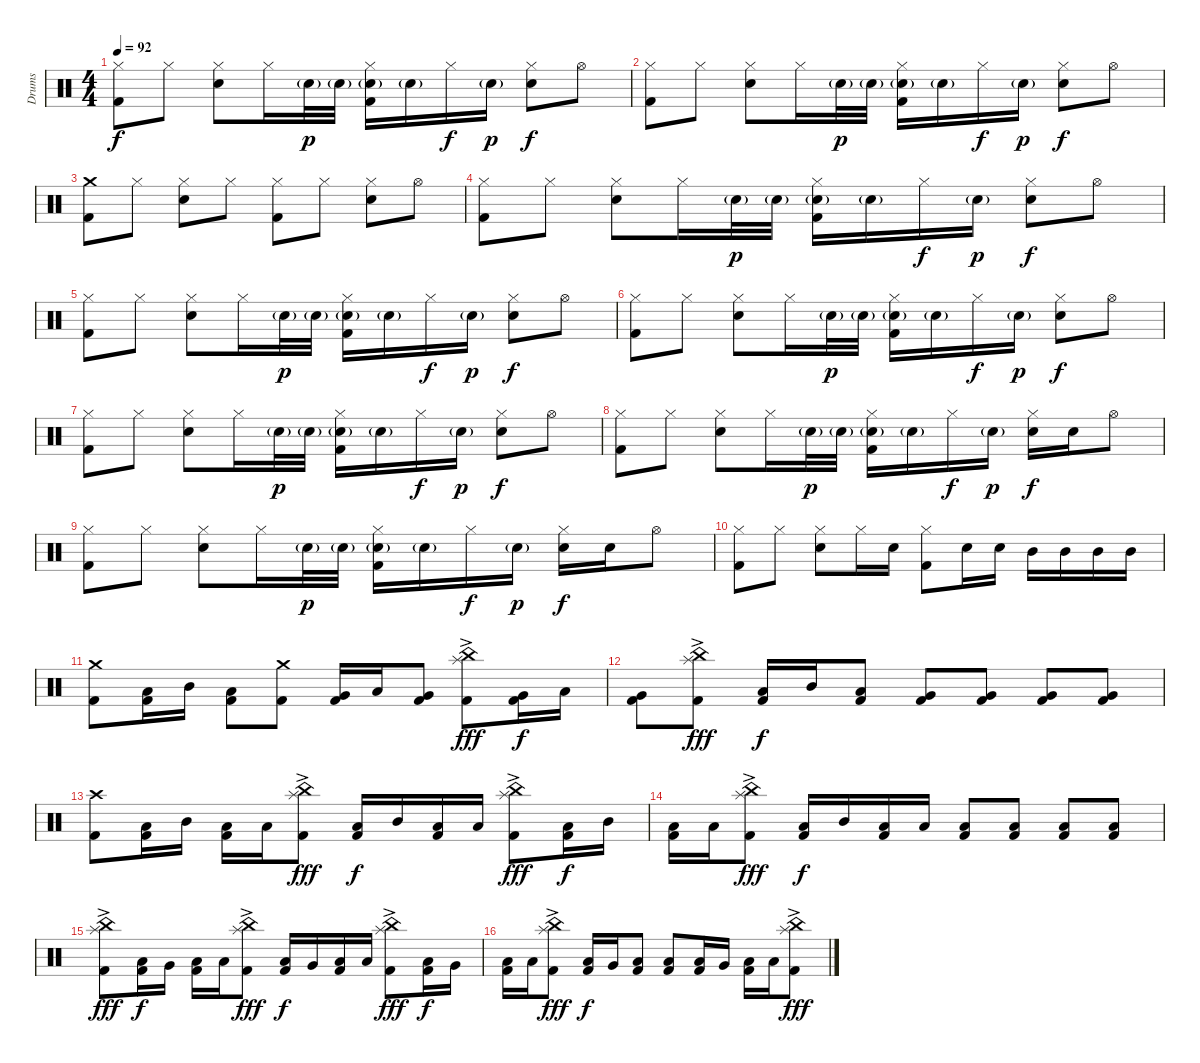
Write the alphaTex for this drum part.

\track ("Drums" "Drums") {instrument percussion}
\staff {score}
\articulation defaults
\ts (4 4)
\tempo 92
\clef neutral
\ks c
("Hi-Hat (closed)" "Kick (hit) 2").8{dy f} "Hi-Hat (closed)".8 ("Hi-Hat (closed)" "Snare (hit) 2").8 "Hi-Hat (closed)".16 "Snare (hit) 2"{g}.32{dy p} "Snare (hit) 2"{g}.32 ("Hi-Hat (closed)" "Snare (hit) 2"{g} "Kick (hit) 2").16 "Snare (hit) 2"{g}.16 "Hi-Hat (closed)".16{dy f} "Snare (hit) 2"{g}.16{dy p} ("Hi-Hat (closed)" "Snare (hit) 2").8{dy f} "Hi-Hat (open)".8 |
("Hi-Hat (closed)" "Kick (hit) 2").8 "Hi-Hat (closed)".8 ("Hi-Hat (closed)" "Snare (hit) 2").8 "Hi-Hat (closed)".16 "Snare (hit) 2"{g}.32{dy p} "Snare (hit) 2"{g}.32 ("Hi-Hat (closed)" "Snare (hit) 2"{g} "Kick (hit) 2").16 "Snare (hit) 2"{g}.16 "Hi-Hat (closed)".16{dy f} "Snare (hit) 2"{g}.16{dy p} ("Hi-Hat (closed)" "Snare (hit) 2").8{dy f} "Hi-Hat (open)".8 |
("Crash medium (hit)" "Kick (hit) 2").8 "Hi-Hat (closed)".8 ("Hi-Hat (closed)" "Snare (hit) 2").8 "Hi-Hat (closed)".8 ("Hi-Hat (closed)" "Kick (hit) 2").8 "Hi-Hat (closed)".8 ("Hi-Hat (closed)" "Snare (hit) 2").8 "Hi-Hat (open)".8 |
("Hi-Hat (closed)" "Kick (hit) 2").8 "Hi-Hat (closed)".8 ("Hi-Hat (closed)" "Snare (hit) 2").8 "Hi-Hat (closed)".16 "Snare (hit) 2"{g}.32{dy p} "Snare (hit) 2"{g}.32 ("Hi-Hat (closed)" "Snare (hit) 2"{g} "Kick (hit) 2").16 "Snare (hit) 2"{g}.16 "Hi-Hat (closed)".16{dy f} "Snare (hit) 2"{g}.16{dy p} ("Hi-Hat (closed)" "Snare (hit) 2").8{dy f} "Hi-Hat (open)".8 |
("Hi-Hat (closed)" "Kick (hit) 2").8 "Hi-Hat (closed)".8 ("Hi-Hat (closed)" "Snare (hit) 2").8 "Hi-Hat (closed)".16 "Snare (hit) 2"{g}.32{dy p} "Snare (hit) 2"{g}.32 ("Hi-Hat (closed)" "Snare (hit) 2"{g} "Kick (hit) 2").16 "Snare (hit) 2"{g}.16 "Hi-Hat (closed)".16{dy f} "Snare (hit) 2"{g}.16{dy p} ("Hi-Hat (closed)" "Snare (hit) 2").8{dy f} "Hi-Hat (open)".8 |
("Hi-Hat (closed)" "Kick (hit) 2").8 "Hi-Hat (closed)".8 ("Hi-Hat (closed)" "Snare (hit) 2").8 "Hi-Hat (closed)".16 "Snare (hit) 2"{g}.32{dy p} "Snare (hit) 2"{g}.32 ("Hi-Hat (closed)" "Snare (hit) 2"{g} "Kick (hit) 2").16 "Snare (hit) 2"{g}.16 "Hi-Hat (closed)".16{dy f} "Snare (hit) 2"{g}.16{dy p} ("Hi-Hat (closed)" "Snare (hit) 2").8{dy f} "Hi-Hat (open)".8 |
("Hi-Hat (closed)" "Kick (hit) 2").8 "Hi-Hat (closed)".8 ("Hi-Hat (closed)" "Snare (hit) 2").8 "Hi-Hat (closed)".16 "Snare (hit) 2"{g}.32{dy p} "Snare (hit) 2"{g}.32 ("Hi-Hat (closed)" "Snare (hit) 2"{g} "Kick (hit) 2").16 "Snare (hit) 2"{g}.16 "Hi-Hat (closed)".16{dy f} "Snare (hit) 2"{g}.16{dy p} ("Hi-Hat (closed)" "Snare (hit) 2").8{dy f} "Hi-Hat (open)".8 |
("Hi-Hat (closed)" "Kick (hit) 2").8 "Hi-Hat (closed)".8 ("Hi-Hat (closed)" "Snare (hit) 2").8 "Hi-Hat (closed)".16 "Snare (hit) 2"{g}.32{dy p} "Snare (hit) 2"{g}.32 ("Hi-Hat (closed)" "Snare (hit) 2"{g} "Kick (hit) 2").16 "Snare (hit) 2"{g}.16 "Hi-Hat (closed)".16{dy f} "Snare (hit) 2"{g}.16{dy p} ("Hi-Hat (closed)" "Snare (hit) 2").16{dy f} "Snare (hit) 2".16 "Hi-Hat (open)".8 |
("Hi-Hat (closed)" "Kick (hit) 2").8 "Hi-Hat (closed)".8 ("Hi-Hat (closed)" "Snare (hit) 2").8 "Hi-Hat (closed)".16 "Snare (hit) 2"{g}.32{dy p} "Snare (hit) 2"{g}.32 ("Hi-Hat (closed)" "Snare (hit) 2"{g} "Kick (hit) 2").16 "Snare (hit) 2"{g}.16 "Hi-Hat (closed)".16{dy f} "Snare (hit) 2"{g}.16{dy p} ("Hi-Hat (closed)" "Snare (hit) 2").16{dy f} "Snare (hit) 2".16 "Hi-Hat (open)".8 |
("Hi-Hat (closed)" "Kick (hit) 2").8 "Hi-Hat (closed)".8 ("Hi-Hat (closed)" "Snare (hit) 2").8 "Hi-Hat (closed)".16 "Snare (hit) 2".16 ("Hi-Hat (closed)" "Kick (hit) 2").8 "Snare (hit) 2".16 "Snare (hit) 2".16 "Mid Tom (hit)".16 "Mid Tom (hit)".16 "Mid Tom (hit)".16 "Mid Tom (hit)".16 |
("Crash medium (hit)" "Kick (hit) 2").8 ("Low Tom (hit)" "Kick (hit) 2").16 "Mid Tom (hit)".16 ("Low Tom (hit)" "Kick (hit) 2").8 ("Crash medium (hit)" "Kick (hit) 2").8 ("Very Low Tom (hit)" "Kick (hit) 2").16 "Low Tom (hit)".16 ("Very Low Tom (hit)" "Kick (hit) 2").8 ("China (hit)" "Splash (hit)"{ac} "Kick (hit) 2").8{dy fff} ("Very Low Tom (hit)" "Kick (hit) 2").16{dy f} "Low Tom (hit)".16 |
("Very Low Tom (hit)" "Kick (hit) 2").8 ("China (hit)" "Splash (hit)"{ac} "Kick (hit) 2").8{dy fff} ("Low Tom (hit)" "Kick (hit) 2").16{dy f} "Mid Tom (hit)".16 ("Low Tom (hit)" "Kick (hit) 2").8 ("Very Low Tom (hit)" "Kick (hit) 2").8 ("Very Low Tom (hit)" "Kick (hit) 2").8 ("Very Low Tom (hit)" "Kick (hit) 2").8 ("Very Low Tom (hit)" "Kick (hit) 2").8 |
("Crash high (hit)" "Kick (hit) 2").8 ("Low Tom (hit)" "Kick (hit) 2").16 "Mid Tom (hit)".16 ("Low Tom (hit)" "Kick (hit) 2").16 "Low Tom (hit)".16 ("China (hit)" "Splash (hit)"{ac} "Kick (hit) 2").8{dy fff} ("Low Tom (hit)" "Kick (hit) 2").16{dy f} "Mid Tom (hit)".16 ("Low Tom (hit)" "Kick (hit) 2").16 "Low Tom (hit)".16 ("China (hit)" "Splash (hit)"{ac} "Kick (hit) 2").8{dy fff} ("Low Tom (hit)" "Kick (hit) 2").16{dy f} "Mid Tom (hit)".16 |
("Low Tom (hit)" "Kick (hit) 2").16 "Low Tom (hit)".16 ("China (hit)" "Splash (hit)"{ac} "Kick (hit) 2").8{dy fff} ("Low Tom (hit)" "Kick (hit) 2").16{dy f} "Mid Tom (hit)".16 ("Low Tom (hit)" "Kick (hit) 2").16 "Low Tom (hit)".16 ("Low Tom (hit)" "Kick (hit) 2").8 ("Low Tom (hit)" "Kick (hit) 2").8 ("Low Tom (hit)" "Kick (hit) 2").8 ("Low Tom (hit)" "Kick (hit) 2").8 |
("China (hit)" "Splash (hit)"{ac} "Kick (hit) 2").8{dy fff} ("Low Floor Tom (hit)" "Kick (hit) 2").16{dy f} "Very Low Tom (hit)".16 ("Low Floor Tom (hit)" "Kick (hit) 2").16 "Low Floor Tom (hit)".16 ("China (hit)" "Splash (hit)"{ac} "Kick (hit) 2").8{dy fff} ("Low Floor Tom (hit)" "Kick (hit) 2").16{dy f} "Very Low Tom (hit)".16 ("Low Floor Tom (hit)" "Kick (hit) 2").16 "Low Floor Tom (hit)".16 ("China (hit)" "Splash (hit)"{ac} "Kick (hit) 2").8{dy fff} ("Low Floor Tom (hit)" "Kick (hit) 2").16{dy f} "Very Low Tom (hit)".16 |
("Low Floor Tom (hit)" "Kick (hit) 2").16 "Low Floor Tom (hit)".16 ("China (hit)" "Splash (hit)"{ac} "Kick (hit) 2").8{dy fff} ("Low Floor Tom (hit)" "Kick (hit) 2").16{dy f} "Very Low Tom (hit)".16 ("Low Floor Tom (hit)" "Kick (hit) 2").8 ("Low Floor Tom (hit)" "Kick (hit) 2").8 ("Low Floor Tom (hit)" "Kick (hit) 2").16 "Very Low Tom (hit)".16 ("Low Floor Tom (hit)" "Kick (hit) 2").16 "Low Floor Tom (hit)".16 ("China (hit)" "Splash (hit)"{ac} "Kick (hit) 2").8{dy fff}
